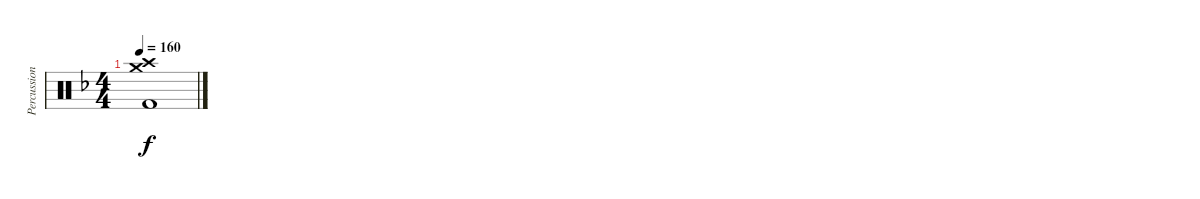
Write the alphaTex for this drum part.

\track ("Percussion" "Percussion") {instrument percussion}
\staff {score}
\articulation defaults
\ts (4 4)
\tempo 160
\clef neutral
\ks f
("Crash medium (hit)"{t} "Crash high (hit)"{t} "Kick (hit) 2"{t}).1{dy f}
